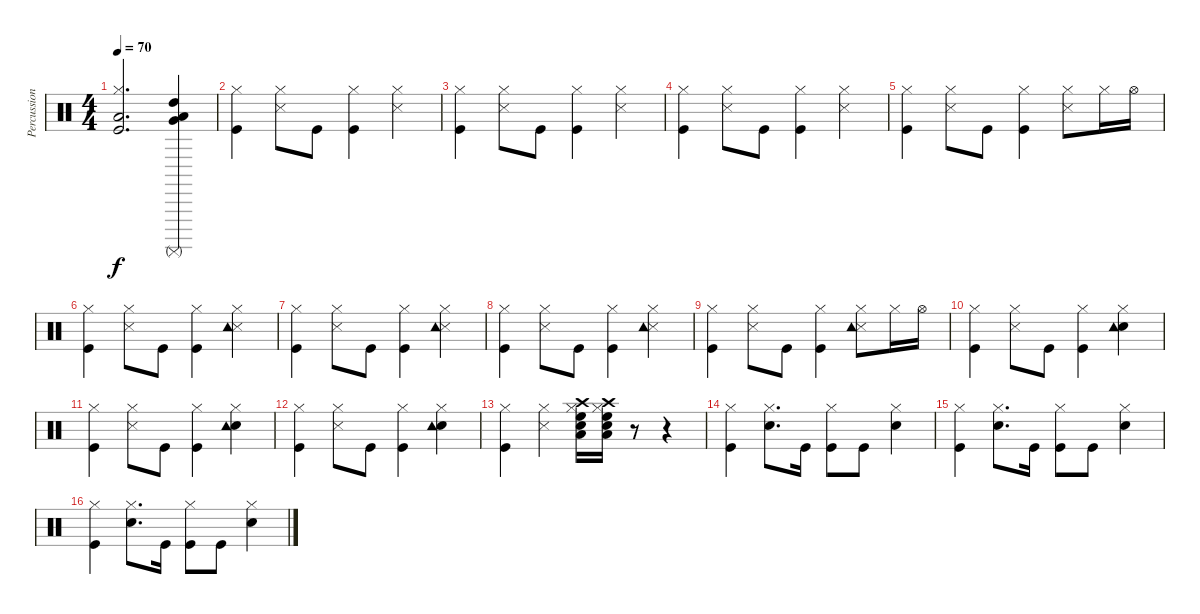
\track ("Percussion" "Percussion") {instrument percussion}
\staff {score}
\articulation defaults
\ts (4 4)
\tempo 70
\clef neutral
\ks c
("Kick (hit)" "Hi-Hat (closed)" "Low Floor Tom (hit)").2{d dy f} ("Very Low Tom (hit)" "Low Tom (hit)" "High Tom (hit)" "Surdo (mute)").4 |
("Kick (hit)" "Hi-Hat (closed)").4 ("Snare (side stick) 3" "Hi-Hat (closed)").8 "Kick (hit)".8 ("Kick (hit)" "Hi-Hat (closed)").4 ("Snare (side stick) 3" "Hi-Hat (closed)").4 |
("Kick (hit)" "Hi-Hat (closed)").4 ("Snare (side stick) 3" "Hi-Hat (closed)").8 "Kick (hit)".8 ("Kick (hit)" "Hi-Hat (closed)").4 ("Snare (side stick) 3" "Hi-Hat (closed)").4 |
("Kick (hit)" "Hi-Hat (closed)").4 ("Snare (side stick) 3" "Hi-Hat (closed)").8 "Kick (hit)".8 ("Kick (hit)" "Hi-Hat (closed)").4 ("Snare (side stick) 3" "Hi-Hat (closed)").4 |
("Kick (hit)" "Hi-Hat (closed)").4 ("Snare (side stick) 3" "Hi-Hat (closed)").8 "Kick (hit)".8 ("Kick (hit)" "Hi-Hat (closed)").4 ("Snare (side stick) 3" "Hi-Hat (closed)").8 "Hi-Hat (closed)".16 "Hi-Hat (open)".16 |
("Kick (hit)" "Hi-Hat (closed)").4 ("Snare (side stick) 3" "Hi-Hat (closed)").8 "Kick (hit)".8 ("Kick (hit)" "Hi-Hat (closed)").4 ("Snare (side stick) 3" "Hi-Hat (closed)" "Tambourine (hit)").4 |
("Kick (hit)" "Hi-Hat (closed)").4 ("Snare (side stick) 3" "Hi-Hat (closed)").8 "Kick (hit)".8 ("Kick (hit)" "Hi-Hat (closed)").4 ("Snare (side stick) 3" "Hi-Hat (closed)" "Tambourine (hit)").4 |
("Kick (hit)" "Hi-Hat (closed)").4 ("Snare (side stick) 3" "Hi-Hat (closed)").8 "Kick (hit)".8 ("Kick (hit)" "Hi-Hat (closed)").4 ("Snare (side stick) 3" "Hi-Hat (closed)" "Tambourine (hit)").4 |
("Kick (hit)" "Hi-Hat (closed)").4 ("Snare (side stick) 3" "Hi-Hat (closed)").8 "Kick (hit)".8 ("Kick (hit)" "Hi-Hat (closed)").4 ("Snare (side stick) 3" "Hi-Hat (closed)" "Tambourine (hit)").8 "Hi-Hat (closed)".16 "Hi-Hat (open)".16 |
("Kick (hit)" "Hi-Hat (closed)").4 ("Snare (side stick) 3" "Hi-Hat (closed)").8 "Kick (hit)".8 ("Kick (hit)" "Hi-Hat (closed)").4 ("Electric Snare (hit)" "Hi-Hat (closed)" "Tambourine (hit)").4 |
("Kick (hit)" "Hi-Hat (closed)").4 ("Snare (side stick) 3" "Hi-Hat (closed)").8 "Kick (hit)".8 ("Kick (hit)" "Hi-Hat (closed)").4 ("Electric Snare (hit)" "Hi-Hat (closed)" "Tambourine (hit)").4 |
("Kick (hit)" "Hi-Hat (closed)").4 ("Snare (side stick) 3" "Hi-Hat (closed)").8 "Kick (hit)".8 ("Kick (hit)" "Hi-Hat (closed)").4 ("Electric Snare (hit)" "Hi-Hat (closed)" "Tambourine (hit)").4 |
("Kick (hit)" "Hi-Hat (closed)").4 ("Snare (side stick) 3" "Hi-Hat (closed)").4 ("Electric Snare (hit)" "Hi-Hat (closed)" "Crash high (hit)" "Low Floor Tom (hit)" "High Floor Tom (hit)").16 ("Electric Snare (hit)" "Hi-Hat (closed)" "Crash high (hit)" "Low Floor Tom (hit)" "High Floor Tom (hit)").16 r.8 r.4 |
("Kick (hit)" "Hi-Hat (closed)").4 ("Electric Snare (hit)" "Hi-Hat (closed)").8{d} "Kick (hit)".16 ("Kick (hit)" "Hi-Hat (closed)").8 "Kick (hit)".8 ("Electric Snare (hit)" "Hi-Hat (closed)").4 |
("Kick (hit)" "Hi-Hat (closed)").4 ("Electric Snare (hit)" "Hi-Hat (closed)").8{d} "Kick (hit)".16 ("Kick (hit)" "Hi-Hat (closed)").8 "Kick (hit)".8 ("Electric Snare (hit)" "Hi-Hat (closed)").4 |
("Kick (hit)" "Hi-Hat (closed)").4 ("Electric Snare (hit)" "Hi-Hat (closed)").8{d} "Kick (hit)".16 ("Kick (hit)" "Hi-Hat (closed)").8 "Kick (hit)".8 ("Electric Snare (hit)" "Hi-Hat (closed)").4
